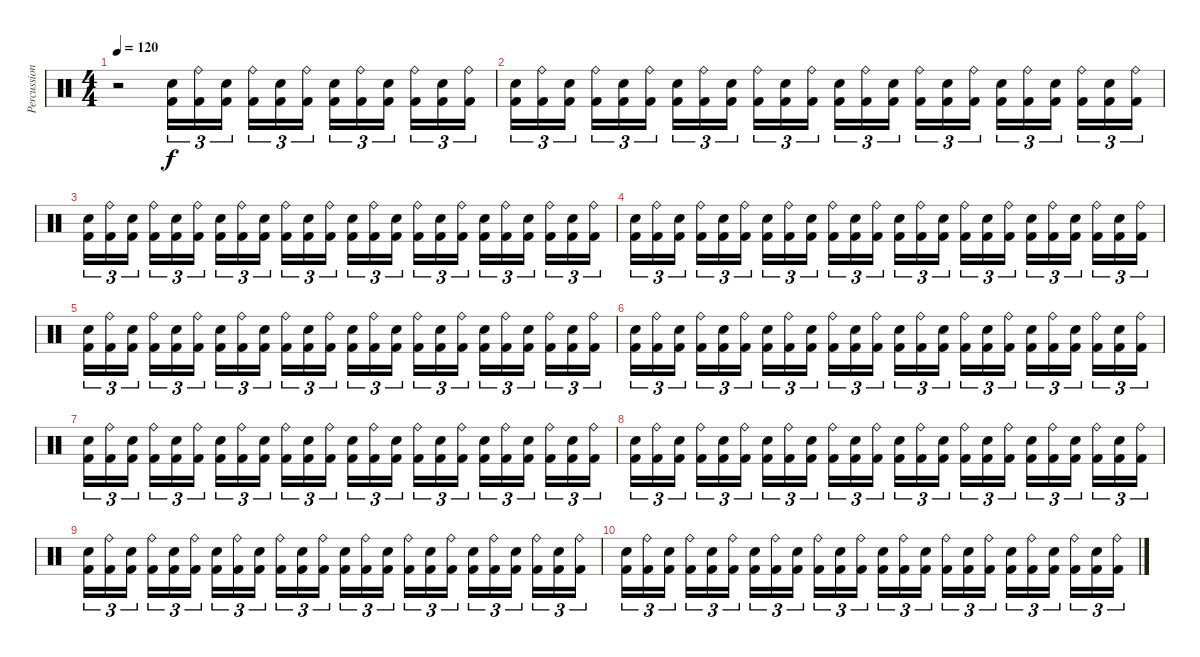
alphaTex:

\track ("Percussion" "Percussion") {instrument percussion}
\staff {score}
\articulation defaults
\ts (4 4)
\tempo 120
\clef neutral
\ks c
r.2{dy f} ("Snare (hit) 2" "Kick (hit) 2").16{tu (3 2)} ("Ride (bell)" "Kick (hit) 2").16{tu (3 2)} ("Snare (hit) 2" "Kick (hit) 2").16{tu (3 2)} ("Ride (bell)" "Kick (hit) 2").16{tu (3 2)} ("Snare (hit) 2" "Kick (hit) 2").16{tu (3 2)} ("Ride (bell)" "Kick (hit) 2").16{tu (3 2)} ("Snare (hit) 2" "Kick (hit) 2").16{tu (3 2)} ("Ride (bell)" "Kick (hit) 2").16{tu (3 2)} ("Snare (hit) 2" "Kick (hit) 2").16{tu (3 2)} ("Ride (bell)" "Kick (hit) 2").16{tu (3 2)} ("Snare (hit) 2" "Kick (hit) 2").16{tu (3 2)} ("Ride (bell)" "Kick (hit) 2").16{tu (3 2)} |
("Snare (hit) 2" "Kick (hit) 2").16{tu (3 2)} ("Ride (bell)" "Kick (hit) 2").16{tu (3 2)} ("Snare (hit) 2" "Kick (hit) 2").16{tu (3 2)} ("Ride (bell)" "Kick (hit) 2").16{tu (3 2)} ("Snare (hit) 2" "Kick (hit) 2").16{tu (3 2)} ("Ride (bell)" "Kick (hit) 2").16{tu (3 2)} ("Snare (hit) 2" "Kick (hit) 2").16{tu (3 2)} ("Ride (bell)" "Kick (hit) 2").16{tu (3 2)} ("Snare (hit) 2" "Kick (hit) 2").16{tu (3 2)} ("Ride (bell)" "Kick (hit) 2").16{tu (3 2)} ("Snare (hit) 2" "Kick (hit) 2").16{tu (3 2)} ("Ride (bell)" "Kick (hit) 2").16{tu (3 2)} ("Snare (hit) 2" "Kick (hit) 2").16{tu (3 2)} ("Ride (bell)" "Kick (hit) 2").16{tu (3 2)} ("Snare (hit) 2" "Kick (hit) 2").16{tu (3 2)} ("Ride (bell)" "Kick (hit) 2").16{tu (3 2)} ("Snare (hit) 2" "Kick (hit) 2").16{tu (3 2)} ("Ride (bell)" "Kick (hit) 2").16{tu (3 2)} ("Snare (hit) 2" "Kick (hit) 2").16{tu (3 2)} ("Ride (bell)" "Kick (hit) 2").16{tu (3 2)} ("Snare (hit) 2" "Kick (hit) 2").16{tu (3 2)} ("Ride (bell)" "Kick (hit) 2").16{tu (3 2)} ("Snare (hit) 2" "Kick (hit) 2").16{tu (3 2)} ("Ride (bell)" "Kick (hit) 2").16{tu (3 2)} |
("Snare (hit) 2" "Kick (hit) 2").16{tu (3 2)} ("Ride (bell)" "Kick (hit) 2").16{tu (3 2)} ("Snare (hit) 2" "Kick (hit) 2").16{tu (3 2)} ("Ride (bell)" "Kick (hit) 2").16{tu (3 2)} ("Snare (hit) 2" "Kick (hit) 2").16{tu (3 2)} ("Ride (bell)" "Kick (hit) 2").16{tu (3 2)} ("Snare (hit) 2" "Kick (hit) 2").16{tu (3 2)} ("Ride (bell)" "Kick (hit) 2").16{tu (3 2)} ("Snare (hit) 2" "Kick (hit) 2").16{tu (3 2)} ("Ride (bell)" "Kick (hit) 2").16{tu (3 2)} ("Snare (hit) 2" "Kick (hit) 2").16{tu (3 2)} ("Ride (bell)" "Kick (hit) 2").16{tu (3 2)} ("Snare (hit) 2" "Kick (hit) 2").16{tu (3 2)} ("Ride (bell)" "Kick (hit) 2").16{tu (3 2)} ("Snare (hit) 2" "Kick (hit) 2").16{tu (3 2)} ("Ride (bell)" "Kick (hit) 2").16{tu (3 2)} ("Snare (hit) 2" "Kick (hit) 2").16{tu (3 2)} ("Ride (bell)" "Kick (hit) 2").16{tu (3 2)} ("Snare (hit) 2" "Kick (hit) 2").16{tu (3 2)} ("Ride (bell)" "Kick (hit) 2").16{tu (3 2)} ("Snare (hit) 2" "Kick (hit) 2").16{tu (3 2)} ("Ride (bell)" "Kick (hit) 2").16{tu (3 2)} ("Snare (hit) 2" "Kick (hit) 2").16{tu (3 2)} ("Ride (bell)" "Kick (hit) 2").16{tu (3 2)} |
("Snare (hit) 2" "Kick (hit) 2").16{tu (3 2)} ("Ride (bell)" "Kick (hit) 2").16{tu (3 2)} ("Snare (hit) 2" "Kick (hit) 2").16{tu (3 2)} ("Ride (bell)" "Kick (hit) 2").16{tu (3 2)} ("Snare (hit) 2" "Kick (hit) 2").16{tu (3 2)} ("Ride (bell)" "Kick (hit) 2").16{tu (3 2)} ("Snare (hit) 2" "Kick (hit) 2").16{tu (3 2)} ("Ride (bell)" "Kick (hit) 2").16{tu (3 2)} ("Snare (hit) 2" "Kick (hit) 2").16{tu (3 2)} ("Ride (bell)" "Kick (hit) 2").16{tu (3 2)} ("Snare (hit) 2" "Kick (hit) 2").16{tu (3 2)} ("Ride (bell)" "Kick (hit) 2").16{tu (3 2)} ("Snare (hit) 2" "Kick (hit) 2").16{tu (3 2)} ("Ride (bell)" "Kick (hit) 2").16{tu (3 2)} ("Snare (hit) 2" "Kick (hit) 2").16{tu (3 2)} ("Ride (bell)" "Kick (hit) 2").16{tu (3 2)} ("Snare (hit) 2" "Kick (hit) 2").16{tu (3 2)} ("Ride (bell)" "Kick (hit) 2").16{tu (3 2)} ("Snare (hit) 2" "Kick (hit) 2").16{tu (3 2)} ("Ride (bell)" "Kick (hit) 2").16{tu (3 2)} ("Snare (hit) 2" "Kick (hit) 2").16{tu (3 2)} ("Ride (bell)" "Kick (hit) 2").16{tu (3 2)} ("Snare (hit) 2" "Kick (hit) 2").16{tu (3 2)} ("Ride (bell)" "Kick (hit) 2").16{tu (3 2)} |
("Snare (hit) 2" "Kick (hit) 2").16{tu (3 2)} ("Ride (bell)" "Kick (hit) 2").16{tu (3 2)} ("Snare (hit) 2" "Kick (hit) 2").16{tu (3 2)} ("Ride (bell)" "Kick (hit) 2").16{tu (3 2)} ("Snare (hit) 2" "Kick (hit) 2").16{tu (3 2)} ("Ride (bell)" "Kick (hit) 2").16{tu (3 2)} ("Snare (hit) 2" "Kick (hit) 2").16{tu (3 2)} ("Ride (bell)" "Kick (hit) 2").16{tu (3 2)} ("Snare (hit) 2" "Kick (hit) 2").16{tu (3 2)} ("Ride (bell)" "Kick (hit) 2").16{tu (3 2)} ("Snare (hit) 2" "Kick (hit) 2").16{tu (3 2)} ("Ride (bell)" "Kick (hit) 2").16{tu (3 2)} ("Snare (hit) 2" "Kick (hit) 2").16{tu (3 2)} ("Ride (bell)" "Kick (hit) 2").16{tu (3 2)} ("Snare (hit) 2" "Kick (hit) 2").16{tu (3 2)} ("Ride (bell)" "Kick (hit) 2").16{tu (3 2)} ("Snare (hit) 2" "Kick (hit) 2").16{tu (3 2)} ("Ride (bell)" "Kick (hit) 2").16{tu (3 2)} ("Snare (hit) 2" "Kick (hit) 2").16{tu (3 2)} ("Ride (bell)" "Kick (hit) 2").16{tu (3 2)} ("Snare (hit) 2" "Kick (hit) 2").16{tu (3 2)} ("Ride (bell)" "Kick (hit) 2").16{tu (3 2)} ("Snare (hit) 2" "Kick (hit) 2").16{tu (3 2)} ("Ride (bell)" "Kick (hit) 2").16{tu (3 2)} |
("Snare (hit) 2" "Kick (hit) 2").16{tu (3 2)} ("Ride (bell)" "Kick (hit) 2").16{tu (3 2)} ("Snare (hit) 2" "Kick (hit) 2").16{tu (3 2)} ("Ride (bell)" "Kick (hit) 2").16{tu (3 2)} ("Snare (hit) 2" "Kick (hit) 2").16{tu (3 2)} ("Ride (bell)" "Kick (hit) 2").16{tu (3 2)} ("Snare (hit) 2" "Kick (hit) 2").16{tu (3 2)} ("Ride (bell)" "Kick (hit) 2").16{tu (3 2)} ("Snare (hit) 2" "Kick (hit) 2").16{tu (3 2)} ("Ride (bell)" "Kick (hit) 2").16{tu (3 2)} ("Snare (hit) 2" "Kick (hit) 2").16{tu (3 2)} ("Ride (bell)" "Kick (hit) 2").16{tu (3 2)} ("Snare (hit) 2" "Kick (hit) 2").16{tu (3 2)} ("Ride (bell)" "Kick (hit) 2").16{tu (3 2)} ("Snare (hit) 2" "Kick (hit) 2").16{tu (3 2)} ("Ride (bell)" "Kick (hit) 2").16{tu (3 2)} ("Snare (hit) 2" "Kick (hit) 2").16{tu (3 2)} ("Ride (bell)" "Kick (hit) 2").16{tu (3 2)} ("Snare (hit) 2" "Kick (hit) 2").16{tu (3 2)} ("Ride (bell)" "Kick (hit) 2").16{tu (3 2)} ("Snare (hit) 2" "Kick (hit) 2").16{tu (3 2)} ("Ride (bell)" "Kick (hit) 2").16{tu (3 2)} ("Snare (hit) 2" "Kick (hit) 2").16{tu (3 2)} ("Ride (bell)" "Kick (hit) 2").16{tu (3 2)} |
("Snare (hit) 2" "Kick (hit) 2").16{tu (3 2)} ("Ride (bell)" "Kick (hit) 2").16{tu (3 2)} ("Snare (hit) 2" "Kick (hit) 2").16{tu (3 2)} ("Ride (bell)" "Kick (hit) 2").16{tu (3 2)} ("Snare (hit) 2" "Kick (hit) 2").16{tu (3 2)} ("Ride (bell)" "Kick (hit) 2").16{tu (3 2)} ("Snare (hit) 2" "Kick (hit) 2").16{tu (3 2)} ("Ride (bell)" "Kick (hit) 2").16{tu (3 2)} ("Snare (hit) 2" "Kick (hit) 2").16{tu (3 2)} ("Ride (bell)" "Kick (hit) 2").16{tu (3 2)} ("Snare (hit) 2" "Kick (hit) 2").16{tu (3 2)} ("Ride (bell)" "Kick (hit) 2").16{tu (3 2)} ("Snare (hit) 2" "Kick (hit) 2").16{tu (3 2)} ("Ride (bell)" "Kick (hit) 2").16{tu (3 2)} ("Snare (hit) 2" "Kick (hit) 2").16{tu (3 2)} ("Ride (bell)" "Kick (hit) 2").16{tu (3 2)} ("Snare (hit) 2" "Kick (hit) 2").16{tu (3 2)} ("Ride (bell)" "Kick (hit) 2").16{tu (3 2)} ("Snare (hit) 2" "Kick (hit) 2").16{tu (3 2)} ("Ride (bell)" "Kick (hit) 2").16{tu (3 2)} ("Snare (hit) 2" "Kick (hit) 2").16{tu (3 2)} ("Ride (bell)" "Kick (hit) 2").16{tu (3 2)} ("Snare (hit) 2" "Kick (hit) 2").16{tu (3 2)} ("Ride (bell)" "Kick (hit) 2").16{tu (3 2)} |
("Snare (hit) 2" "Kick (hit) 2").16{tu (3 2)} ("Ride (bell)" "Kick (hit) 2").16{tu (3 2)} ("Snare (hit) 2" "Kick (hit) 2").16{tu (3 2)} ("Ride (bell)" "Kick (hit) 2").16{tu (3 2)} ("Snare (hit) 2" "Kick (hit) 2").16{tu (3 2)} ("Ride (bell)" "Kick (hit) 2").16{tu (3 2)} ("Snare (hit) 2" "Kick (hit) 2").16{tu (3 2)} ("Ride (bell)" "Kick (hit) 2").16{tu (3 2)} ("Snare (hit) 2" "Kick (hit) 2").16{tu (3 2)} ("Ride (bell)" "Kick (hit) 2").16{tu (3 2)} ("Snare (hit) 2" "Kick (hit) 2").16{tu (3 2)} ("Ride (bell)" "Kick (hit) 2").16{tu (3 2)} ("Snare (hit) 2" "Kick (hit) 2").16{tu (3 2)} ("Ride (bell)" "Kick (hit) 2").16{tu (3 2)} ("Snare (hit) 2" "Kick (hit) 2").16{tu (3 2)} ("Ride (bell)" "Kick (hit) 2").16{tu (3 2)} ("Snare (hit) 2" "Kick (hit) 2").16{tu (3 2)} ("Ride (bell)" "Kick (hit) 2").16{tu (3 2)} ("Snare (hit) 2" "Kick (hit) 2").16{tu (3 2)} ("Ride (bell)" "Kick (hit) 2").16{tu (3 2)} ("Snare (hit) 2" "Kick (hit) 2").16{tu (3 2)} ("Ride (bell)" "Kick (hit) 2").16{tu (3 2)} ("Snare (hit) 2" "Kick (hit) 2").16{tu (3 2)} ("Ride (bell)" "Kick (hit) 2").16{tu (3 2)} |
("Snare (hit) 2" "Kick (hit) 2").16{tu (3 2)} ("Ride (bell)" "Kick (hit) 2").16{tu (3 2)} ("Snare (hit) 2" "Kick (hit) 2").16{tu (3 2)} ("Ride (bell)" "Kick (hit) 2").16{tu (3 2)} ("Snare (hit) 2" "Kick (hit) 2").16{tu (3 2)} ("Ride (bell)" "Kick (hit) 2").16{tu (3 2)} ("Snare (hit) 2" "Kick (hit) 2").16{tu (3 2)} ("Ride (bell)" "Kick (hit) 2").16{tu (3 2)} ("Snare (hit) 2" "Kick (hit) 2").16{tu (3 2)} ("Ride (bell)" "Kick (hit) 2").16{tu (3 2)} ("Snare (hit) 2" "Kick (hit) 2").16{tu (3 2)} ("Ride (bell)" "Kick (hit) 2").16{tu (3 2)} ("Snare (hit) 2" "Kick (hit) 2").16{tu (3 2)} ("Ride (bell)" "Kick (hit) 2").16{tu (3 2)} ("Snare (hit) 2" "Kick (hit) 2").16{tu (3 2)} ("Ride (bell)" "Kick (hit) 2").16{tu (3 2)} ("Snare (hit) 2" "Kick (hit) 2").16{tu (3 2)} ("Ride (bell)" "Kick (hit) 2").16{tu (3 2)} ("Snare (hit) 2" "Kick (hit) 2").16{tu (3 2)} ("Ride (bell)" "Kick (hit) 2").16{tu (3 2)} ("Snare (hit) 2" "Kick (hit) 2").16{tu (3 2)} ("Ride (bell)" "Kick (hit) 2").16{tu (3 2)} ("Snare (hit) 2" "Kick (hit) 2").16{tu (3 2)} ("Ride (bell)" "Kick (hit) 2").16{tu (3 2)} |
("Snare (hit) 2" "Kick (hit) 2").16{tu (3 2)} ("Ride (bell)" "Kick (hit) 2").16{tu (3 2)} ("Snare (hit) 2" "Kick (hit) 2").16{tu (3 2)} ("Ride (bell)" "Kick (hit) 2").16{tu (3 2)} ("Snare (hit) 2" "Kick (hit) 2").16{tu (3 2)} ("Ride (bell)" "Kick (hit) 2").16{tu (3 2)} ("Snare (hit) 2" "Kick (hit) 2").16{tu (3 2)} ("Ride (bell)" "Kick (hit) 2").16{tu (3 2)} ("Snare (hit) 2" "Kick (hit) 2").16{tu (3 2)} ("Ride (bell)" "Kick (hit) 2").16{tu (3 2)} ("Snare (hit) 2" "Kick (hit) 2").16{tu (3 2)} ("Ride (bell)" "Kick (hit) 2").16{tu (3 2)} ("Snare (hit) 2" "Kick (hit) 2").16{tu (3 2)} ("Ride (bell)" "Kick (hit) 2").16{tu (3 2)} ("Snare (hit) 2" "Kick (hit) 2").16{tu (3 2)} ("Ride (bell)" "Kick (hit) 2").16{tu (3 2)} ("Snare (hit) 2" "Kick (hit) 2").16{tu (3 2)} ("Ride (bell)" "Kick (hit) 2").16{tu (3 2)} ("Snare (hit) 2" "Kick (hit) 2").16{tu (3 2)} ("Ride (bell)" "Kick (hit) 2").16{tu (3 2)} ("Snare (hit) 2" "Kick (hit) 2").16{tu (3 2)} ("Ride (bell)" "Kick (hit) 2").16{tu (3 2)} ("Snare (hit) 2" "Kick (hit) 2").16{tu (3 2)} ("Ride (bell)" "Kick (hit) 2").16{tu (3 2)}
